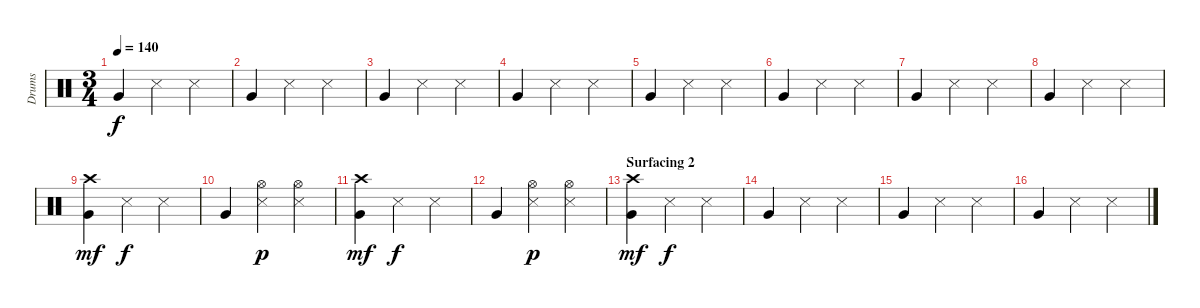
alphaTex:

\track ("Drums" "Drums") {instrument percussion}
\staff {score}
\articulation defaults
\ts (3 4)
\tempo 140
\clef neutral
\ks c "Very Low Tom (hit)".4{dy f} "Snare (side stick) 3".4 "Snare (side stick) 3".4
|
"Very Low Tom (hit)".4 "Snare (side stick) 3".4 "Snare (side stick) 3".4 |
"Very Low Tom (hit)".4 "Snare (side stick) 3".4 "Snare (side stick) 3".4 |
"Very Low Tom (hit)".4 "Snare (side stick) 3".4 "Snare (side stick) 3".4 |
"Very Low Tom (hit)".4 "Snare (side stick) 3".4 "Snare (side stick) 3".4 |
"Very Low Tom (hit)".4 "Snare (side stick) 3".4 "Snare (side stick) 3".4 |
"Very Low Tom (hit)".4 "Snare (side stick) 3".4 "Snare (side stick) 3".4 |
"Very Low Tom (hit)".4 "Snare (side stick) 3".4 "Snare (side stick) 3".4 |
("Crash high (hit)" "Very Low Tom (hit)").4{dy mf} "Snare (side stick) 3".4{dy f} "Snare (side stick) 3".4 |
"Very Low Tom (hit)".4 ("Hi-Hat (open)" "Snare (side stick) 3").4{dy p} ("Hi-Hat (open)" "Snare (side stick) 3").4 |
("Crash high (hit)" "Very Low Tom (hit)").4{dy mf} "Snare (side stick) 3".4{dy f} "Snare (side stick) 3".4 |
"Very Low Tom (hit)".4 ("Hi-Hat (open)" "Snare (side stick) 3").4{dy p} ("Hi-Hat (open)" "Snare (side stick) 3").4 |
\section ("" "Surfacing 2")
("Crash high (hit)" "Very Low Tom (hit)").4{dy mf} "Snare (side stick) 3".4{dy f} "Snare (side stick) 3".4 |
"Very Low Tom (hit)".4 "Snare (side stick) 3".4 "Snare (side stick) 3".4 |
"Very Low Tom (hit)".4 "Snare (side stick) 3".4 "Snare (side stick) 3".4 |
"Very Low Tom (hit)".4 "Snare (side stick) 3".4 "Snare (side stick) 3".4
